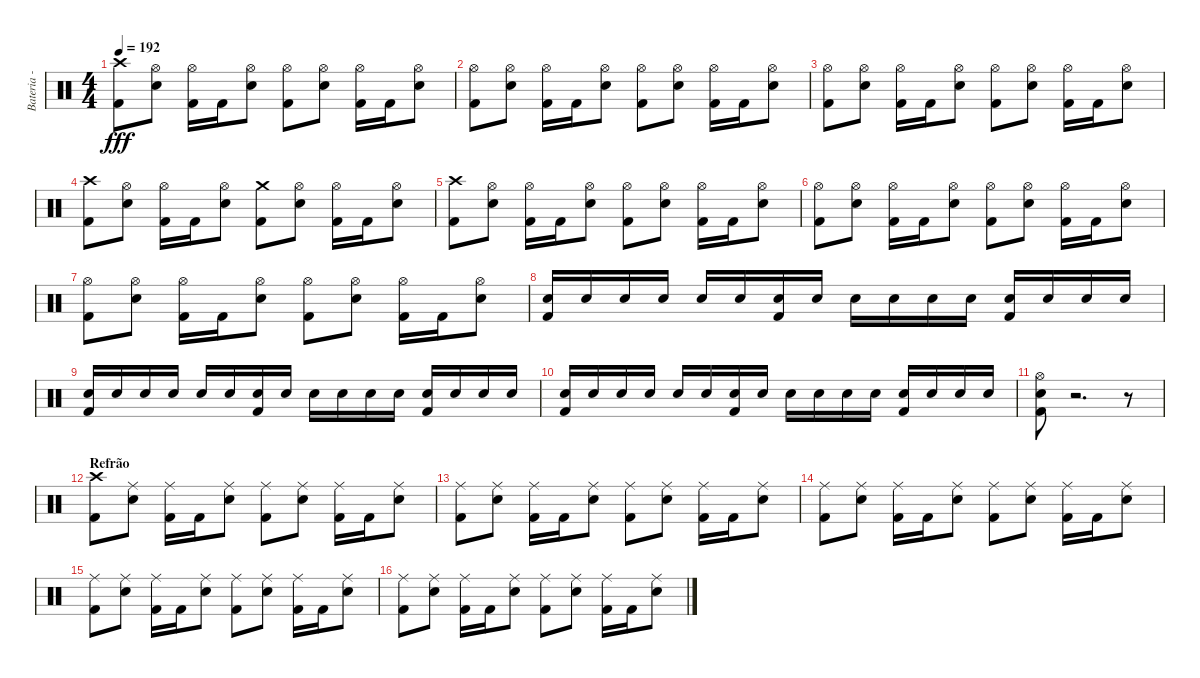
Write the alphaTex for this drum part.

\track ("Bateria - Larzon" "Bateria - ") {instrument percussion}
\staff {score}
\articulation defaults
\ts (4 4)
\tempo 192
\clef neutral
\ks c
("Kick (hit) 2" "Crash high (hit)").8{dy fff} ("Electric Snare (hit)" "Hi-Hat (open)").8 ("Kick (hit) 2" "Hi-Hat (open)").16 "Kick (hit) 2".16 ("Electric Snare (hit)" "Hi-Hat (open)").8 ("Kick (hit) 2" "Hi-Hat (open)").8 ("Electric Snare (hit)" "Hi-Hat (open)").8 ("Kick (hit) 2" "Hi-Hat (open)").16 "Kick (hit) 2".16 ("Electric Snare (hit)" "Hi-Hat (open)").8 |
("Kick (hit) 2" "Hi-Hat (open)").8 ("Electric Snare (hit)" "Hi-Hat (open)").8 ("Kick (hit) 2" "Hi-Hat (open)").16 "Kick (hit) 2".16 ("Electric Snare (hit)" "Hi-Hat (open)").8 ("Kick (hit) 2" "Hi-Hat (open)").8 ("Electric Snare (hit)" "Hi-Hat (open)").8 ("Kick (hit) 2" "Hi-Hat (open)").16 "Kick (hit) 2".16 ("Electric Snare (hit)" "Hi-Hat (open)").8 |
("Kick (hit) 2" "Hi-Hat (open)").8 ("Electric Snare (hit)" "Hi-Hat (open)").8 ("Kick (hit) 2" "Hi-Hat (open)").16 "Kick (hit) 2".16 ("Electric Snare (hit)" "Hi-Hat (open)").8 ("Kick (hit) 2" "Hi-Hat (open)").8 ("Electric Snare (hit)" "Hi-Hat (open)").8 ("Kick (hit) 2" "Hi-Hat (open)").16 "Kick (hit) 2".16 ("Electric Snare (hit)" "Hi-Hat (open)").8 |
("Kick (hit) 2" "Crash high (hit)").8 ("Electric Snare (hit)" "Hi-Hat (open)").8 ("Kick (hit) 2" "Hi-Hat (open)").16 "Kick (hit) 2".16 ("Electric Snare (hit)" "Hi-Hat (open)").8 ("Kick (hit) 2" "Crash medium (hit)").8 ("Electric Snare (hit)" "Hi-Hat (open)").8 ("Kick (hit) 2" "Hi-Hat (open)").16 "Kick (hit) 2".16 ("Electric Snare (hit)" "Hi-Hat (open)").8 |
("Kick (hit) 2" "Crash high (hit)").8 ("Electric Snare (hit)" "Hi-Hat (open)").8 ("Kick (hit) 2" "Hi-Hat (open)").16 "Kick (hit) 2".16 ("Electric Snare (hit)" "Hi-Hat (open)").8 ("Kick (hit) 2" "Hi-Hat (open)").8 ("Electric Snare (hit)" "Hi-Hat (open)").8 ("Kick (hit) 2" "Hi-Hat (open)").16 "Kick (hit) 2".16 ("Electric Snare (hit)" "Hi-Hat (open)").8 |
("Kick (hit) 2" "Hi-Hat (open)").8 ("Electric Snare (hit)" "Hi-Hat (open)").8 ("Kick (hit) 2" "Hi-Hat (open)").16 "Kick (hit) 2".16 ("Electric Snare (hit)" "Hi-Hat (open)").8 ("Kick (hit) 2" "Hi-Hat (open)").8 ("Electric Snare (hit)" "Hi-Hat (open)").8 ("Kick (hit) 2" "Hi-Hat (open)").16 "Kick (hit) 2".16 ("Electric Snare (hit)" "Hi-Hat (open)").8 |
("Kick (hit) 2" "Hi-Hat (open)").8 ("Electric Snare (hit)" "Hi-Hat (open)").8 ("Kick (hit) 2" "Hi-Hat (open)").16 "Kick (hit) 2".16 ("Electric Snare (hit)" "Hi-Hat (open)").8 ("Kick (hit) 2" "Hi-Hat (open)").8 ("Electric Snare (hit)" "Hi-Hat (open)").8 ("Kick (hit) 2" "Hi-Hat (open)").16 "Kick (hit) 2".16 ("Electric Snare (hit)" "Hi-Hat (open)").8 |
("Kick (hit) 2" "Electric Snare (hit)").16 "Electric Snare (hit)".16 "Electric Snare (hit)".16 "Electric Snare (hit)".16 "Electric Snare (hit)".16 "Electric Snare (hit)".16 ("Electric Snare (hit)" "Kick (hit) 2").16 "Electric Snare (hit)".16 "Electric Snare (hit)".16 "Electric Snare (hit)".16 "Electric Snare (hit)".16 "Electric Snare (hit)".16 ("Kick (hit) 2" "Electric Snare (hit)").16 "Electric Snare (hit)".16 "Electric Snare (hit)".16 "Electric Snare (hit)".16 |
("Kick (hit) 2" "Electric Snare (hit)").16 "Electric Snare (hit)".16 "Electric Snare (hit)".16 "Electric Snare (hit)".16 "Electric Snare (hit)".16 "Electric Snare (hit)".16 ("Electric Snare (hit)" "Kick (hit) 2").16 "Electric Snare (hit)".16 "Electric Snare (hit)".16 "Electric Snare (hit)".16 "Electric Snare (hit)".16 "Electric Snare (hit)".16 ("Kick (hit) 2" "Electric Snare (hit)").16 "Electric Snare (hit)".16 "Electric Snare (hit)".16 "Electric Snare (hit)".16 |
("Kick (hit) 2" "Electric Snare (hit)").16 "Electric Snare (hit)".16 "Electric Snare (hit)".16 "Electric Snare (hit)".16 "Electric Snare (hit)".16 "Electric Snare (hit)".16 ("Electric Snare (hit)" "Kick (hit) 2").16 "Electric Snare (hit)".16 "Electric Snare (hit)".16 "Electric Snare (hit)".16 "Electric Snare (hit)".16 "Electric Snare (hit)".16 ("Kick (hit) 2" "Electric Snare (hit)").16 "Electric Snare (hit)".16 "Electric Snare (hit)".16 "Electric Snare (hit)".16 |
("Kick (hit) 2" "Electric Snare (hit)" "Hi-Hat (open)").8 r.2{d} r.8 |
\section ("" "Refrão")
("Kick (hit) 2" "Crash high (hit)").8 ("Electric Snare (hit)" "Ride (middle)").8 ("Kick (hit) 2" "Ride (middle)").16 "Kick (hit) 2".16 ("Electric Snare (hit)" "Ride (middle)").8 ("Kick (hit) 2" "Ride (middle)").8 ("Electric Snare (hit)" "Ride (middle)").8 ("Kick (hit) 2" "Ride (middle)").16 "Kick (hit) 2".16 ("Electric Snare (hit)" "Ride (middle)").8 |
("Kick (hit) 2" "Ride (middle)").8 ("Electric Snare (hit)" "Ride (middle)").8 ("Kick (hit) 2" "Ride (middle)").16 "Kick (hit) 2".16 ("Electric Snare (hit)" "Ride (middle)").8 ("Kick (hit) 2" "Ride (middle)").8 ("Electric Snare (hit)" "Ride (middle)").8 ("Kick (hit) 2" "Ride (middle)").16 "Kick (hit) 2".16 ("Electric Snare (hit)" "Ride (middle)").8 |
("Kick (hit) 2" "Ride (middle)").8 ("Electric Snare (hit)" "Ride (middle)").8 ("Kick (hit) 2" "Ride (middle)").16 "Kick (hit) 2".16 ("Electric Snare (hit)" "Ride (middle)").8 ("Kick (hit) 2" "Ride (middle)").8 ("Electric Snare (hit)" "Ride (middle)").8 ("Kick (hit) 2" "Ride (middle)").16 "Kick (hit) 2".16 ("Electric Snare (hit)" "Ride (middle)").8 |
("Kick (hit) 2" "Ride (middle)").8 ("Electric Snare (hit)" "Ride (middle)").8 ("Kick (hit) 2" "Ride (middle)").16 "Kick (hit) 2".16 ("Electric Snare (hit)" "Ride (middle)").8 ("Kick (hit) 2" "Ride (middle)").8 ("Electric Snare (hit)" "Ride (middle)").8 ("Kick (hit) 2" "Ride (middle)").16 "Kick (hit) 2".16 ("Electric Snare (hit)" "Ride (middle)").8 |
("Kick (hit) 2" "Ride (middle)").8 ("Electric Snare (hit)" "Ride (middle)").8 ("Kick (hit) 2" "Ride (middle)").16 "Kick (hit) 2".16 ("Electric Snare (hit)" "Ride (middle)").8 ("Kick (hit) 2" "Ride (middle)").8 ("Electric Snare (hit)" "Ride (middle)").8 ("Kick (hit) 2" "Ride (middle)").16 "Kick (hit) 2".16 ("Electric Snare (hit)" "Ride (middle)").8
